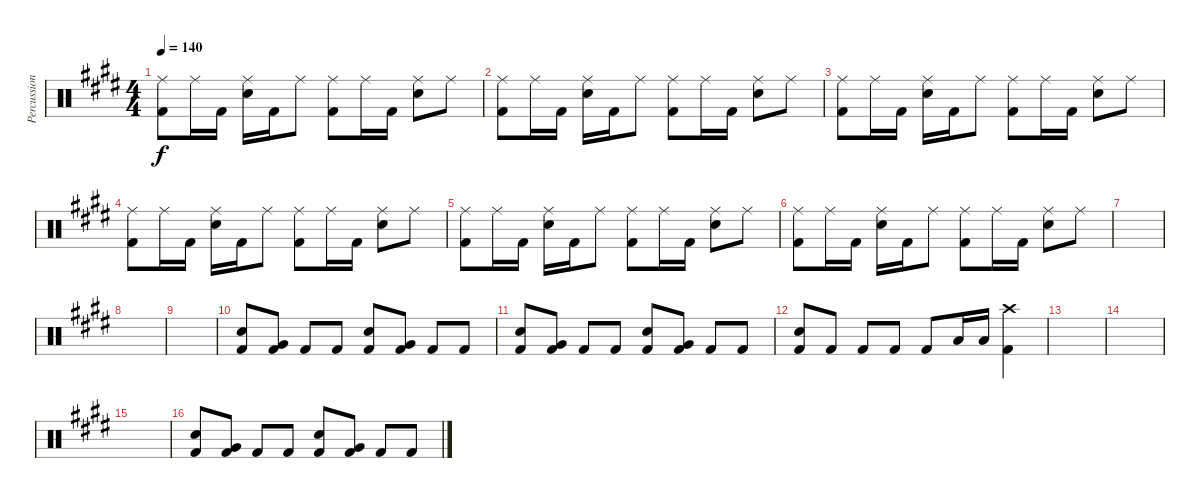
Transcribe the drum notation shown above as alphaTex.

\track ("Percussion" "Percussion") {instrument percussion}
\staff {score}
\articulation defaults
\ts (4 4)
\tempo 140
\clef neutral
\ks c#minor
("Kick (hit) 2" "Ride (middle)").8{dy f} "Ride (middle)".16 "Kick (hit) 2".16 ("Ride (middle)" "Electric Snare (hit)").16 "Kick (hit) 2".16 "Ride (middle)".8 ("Kick (hit) 2" "Ride (middle)").8 "Ride (middle)".16 "Kick (hit) 2".16 ("Ride (middle)" "Electric Snare (hit)").8 "Ride (middle)".8 |
("Kick (hit) 2" "Ride (middle)").8 "Ride (middle)".16 "Kick (hit) 2".16 ("Ride (middle)" "Electric Snare (hit)").16 "Kick (hit) 2".16 "Ride (middle)".8 ("Kick (hit) 2" "Ride (middle)").8 "Ride (middle)".16 "Kick (hit) 2".16 ("Ride (middle)" "Electric Snare (hit)").8 "Ride (middle)".8 |
("Kick (hit) 2" "Ride (middle)").8 "Ride (middle)".16 "Kick (hit) 2".16 ("Ride (middle)" "Electric Snare (hit)").16 "Kick (hit) 2".16 "Ride (middle)".8 ("Kick (hit) 2" "Ride (middle)").8 "Ride (middle)".16 "Kick (hit) 2".16 ("Ride (middle)" "Electric Snare (hit)").8 "Ride (middle)".8 |
("Kick (hit) 2" "Ride (middle)").8 "Ride (middle)".16 "Kick (hit) 2".16 ("Ride (middle)" "Electric Snare (hit)").16 "Kick (hit) 2".16 "Ride (middle)".8 ("Kick (hit) 2" "Ride (middle)").8 "Ride (middle)".16 "Kick (hit) 2".16 ("Ride (middle)" "Electric Snare (hit)").8 "Ride (middle)".8 |
("Kick (hit) 2" "Ride (middle)").8 "Ride (middle)".16 "Kick (hit) 2".16 ("Ride (middle)" "Electric Snare (hit)").16 "Kick (hit) 2".16 "Ride (middle)".8 ("Kick (hit) 2" "Ride (middle)").8 "Ride (middle)".16 "Kick (hit) 2".16 ("Ride (middle)" "Electric Snare (hit)").8 "Ride (middle)".8 |
("Kick (hit) 2" "Ride (middle)").8 "Ride (middle)".16 "Kick (hit) 2".16 ("Ride (middle)" "Electric Snare (hit)").16 "Kick (hit) 2".16 "Ride (middle)".8 ("Kick (hit) 2" "Ride (middle)").8 "Ride (middle)".16 "Kick (hit) 2".16 ("Ride (middle)" "Electric Snare (hit)").8 "Ride (middle)".8 |
|
|
|
("Kick (hit) 2" "Electric Snare (hit)").8 ("Kick (hit) 2" "Very Low Tom (hit)").8 "Kick (hit) 2".8 "Kick (hit) 2".8 ("Kick (hit) 2" "Electric Snare (hit)").8 ("Kick (hit) 2" "Very Low Tom (hit)").8 "Kick (hit) 2".8 "Kick (hit) 2".8 |
("Kick (hit) 2" "Electric Snare (hit)").8 ("Kick (hit) 2" "Very Low Tom (hit)").8 "Kick (hit) 2".8 "Kick (hit) 2".8 ("Kick (hit) 2" "Electric Snare (hit)").8 ("Kick (hit) 2" "Very Low Tom (hit)").8 "Kick (hit) 2".8 "Kick (hit) 2".8 |
("Kick (hit) 2" "Electric Snare (hit)").8 "Kick (hit) 2".8 "Kick (hit) 2".8 "Kick (hit) 2".8 "Kick (hit) 2".8 "Low Tom (hit)".16 "Low Tom (hit)".16 ("Kick (hit) 2" "Crash high (hit)").4 |
|
|
|
("Kick (hit) 2" "Electric Snare (hit)").8 ("Kick (hit) 2" "Very Low Tom (hit)").8 "Kick (hit) 2".8 "Kick (hit) 2".8 ("Kick (hit) 2" "Electric Snare (hit)").8 ("Kick (hit) 2" "Very Low Tom (hit)").8 "Kick (hit) 2".8 "Kick (hit) 2".8
